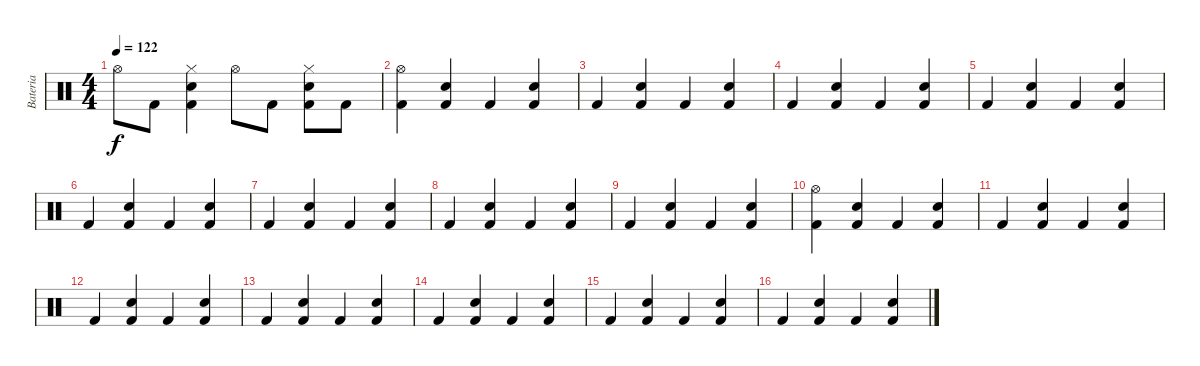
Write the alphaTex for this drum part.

\track ("Bateria" "Bateria") {instrument percussion}
\staff {score}
\articulation defaults
\ts (4 4)
\tempo 122
\clef neutral
\ks c "Hi-Hat (open)".8{dy f} "Kick (hit) 2".8
("Kick (hit) 2" "Snare (hit) 2" "Hi-Hat (closed)").4 "Hi-Hat (open)".8 "Kick (hit) 2".8 ("Kick (hit) 2" "Snare (hit) 2" "Hi-Hat (closed)").8 "Kick (hit) 2".8 |
("Kick (hit) 2" "Hi-Hat (open)").4 ("Kick (hit) 2" "Snare (hit) 2").4 "Kick (hit) 2".4 ("Kick (hit) 2" "Snare (hit) 2").4 |
"Kick (hit) 2".4 ("Kick (hit) 2" "Snare (hit) 2").4 "Kick (hit) 2".4 ("Kick (hit) 2" "Snare (hit) 2").4 |
"Kick (hit) 2".4 ("Kick (hit) 2" "Snare (hit) 2").4 "Kick (hit) 2".4 ("Kick (hit) 2" "Snare (hit) 2").4 |
"Kick (hit) 2".4 ("Kick (hit) 2" "Snare (hit) 2").4 "Kick (hit) 2".4 ("Kick (hit) 2" "Snare (hit) 2").4 |
"Kick (hit) 2".4 ("Kick (hit) 2" "Snare (hit) 2").4 "Kick (hit) 2".4 ("Kick (hit) 2" "Snare (hit) 2").4 |
"Kick (hit) 2".4 ("Kick (hit) 2" "Snare (hit) 2").4 "Kick (hit) 2".4 ("Kick (hit) 2" "Snare (hit) 2").4 |
"Kick (hit) 2".4 ("Kick (hit) 2" "Snare (hit) 2").4 "Kick (hit) 2".4 ("Kick (hit) 2" "Snare (hit) 2").4 |
"Kick (hit) 2".4 ("Kick (hit) 2" "Snare (hit) 2").4 "Kick (hit) 2".4 ("Kick (hit) 2" "Snare (hit) 2").4 |
("Kick (hit) 2" "Hi-Hat (open)").4 ("Kick (hit) 2" "Snare (hit) 2").4 "Kick (hit) 2".4 ("Kick (hit) 2" "Snare (hit) 2").4 |
"Kick (hit) 2".4 ("Kick (hit) 2" "Snare (hit) 2").4 "Kick (hit) 2".4 ("Kick (hit) 2" "Snare (hit) 2").4 |
"Kick (hit) 2".4 ("Kick (hit) 2" "Snare (hit) 2").4 "Kick (hit) 2".4 ("Kick (hit) 2" "Snare (hit) 2").4 |
"Kick (hit) 2".4 ("Kick (hit) 2" "Snare (hit) 2").4 "Kick (hit) 2".4 ("Kick (hit) 2" "Snare (hit) 2").4 |
"Kick (hit) 2".4 ("Kick (hit) 2" "Snare (hit) 2").4 "Kick (hit) 2".4 ("Kick (hit) 2" "Snare (hit) 2").4 |
"Kick (hit) 2".4 ("Kick (hit) 2" "Snare (hit) 2").4 "Kick (hit) 2".4 ("Kick (hit) 2" "Snare (hit) 2").4 |
"Kick (hit) 2".4 ("Kick (hit) 2" "Snare (hit) 2").4 "Kick (hit) 2".4 ("Kick (hit) 2" "Snare (hit) 2").4
